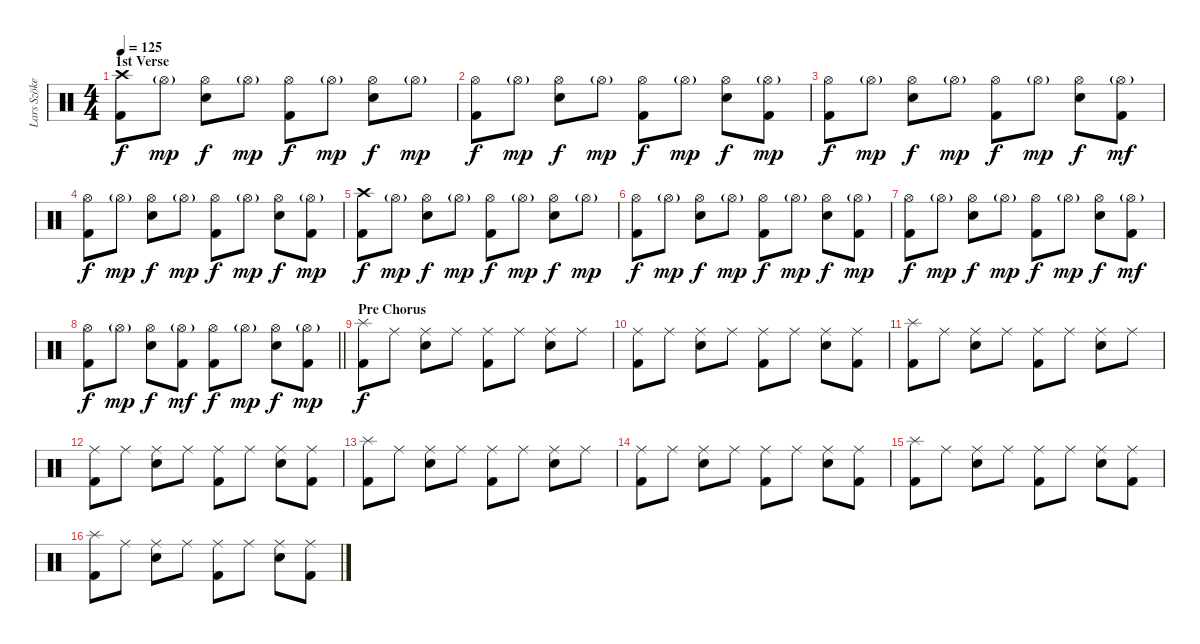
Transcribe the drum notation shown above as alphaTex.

\track ("Lars Szöke" "Lars Szöke") {instrument percussion}
\staff {score}
\articulation defaults
\ts (4 4)
\section ("" "1st Verse ")
\tempo 125
\clef neutral
\ks c
("Crash high (hit)" "Kick (hit) 2").8{dy f} "Hi-Hat (open)"{g}.8{dy mp} ("Hi-Hat (open)" "Snare (hit) 2").8{dy f} "Hi-Hat (open)"{g}.8{dy mp} ("Hi-Hat (open)" "Kick (hit) 2").8{dy f} "Hi-Hat (open)"{g}.8{dy mp} ("Hi-Hat (open)" "Snare (hit) 2").8{dy f} "Hi-Hat (open)"{g}.8{dy mp} |
("Hi-Hat (open)" "Kick (hit) 2").8{dy f} "Hi-Hat (open)"{g}.8{dy mp} ("Hi-Hat (open)" "Snare (hit) 2").8{dy f} "Hi-Hat (open)"{g}.8{dy mp} ("Hi-Hat (open)" "Kick (hit) 2").8{dy f} "Hi-Hat (open)"{g}.8{dy mp} ("Hi-Hat (open)" "Snare (hit) 2").8{dy f} ("Hi-Hat (open)"{g} "Kick (hit) 2").8{dy mp} |
("Hi-Hat (open)" "Kick (hit) 2").8{dy f} "Hi-Hat (open)"{g}.8{dy mp} ("Hi-Hat (open)" "Snare (hit) 2").8{dy f} "Hi-Hat (open)"{g}.8{dy mp} ("Hi-Hat (open)" "Kick (hit) 2").8{dy f} "Hi-Hat (open)"{g}.8{dy mp} ("Hi-Hat (open)" "Snare (hit) 2").8{dy f} ("Hi-Hat (open)"{g} "Kick (hit) 2").8{dy mf} |
("Hi-Hat (open)" "Kick (hit) 2").8{dy f} "Hi-Hat (open)"{g}.8{dy mp} ("Hi-Hat (open)" "Snare (hit) 2").8{dy f} "Hi-Hat (open)"{g}.8{dy mp} ("Hi-Hat (open)" "Kick (hit) 2").8{dy f} "Hi-Hat (open)"{g}.8{dy mp} ("Hi-Hat (open)" "Snare (hit) 2").8{dy f} ("Hi-Hat (open)"{g} "Kick (hit) 2").8{dy mp} |
("Crash high (hit)" "Kick (hit) 2").8{dy f} "Hi-Hat (open)"{g}.8{dy mp} ("Hi-Hat (open)" "Snare (hit) 2").8{dy f} "Hi-Hat (open)"{g}.8{dy mp} ("Hi-Hat (open)" "Kick (hit) 2").8{dy f} "Hi-Hat (open)"{g}.8{dy mp} ("Hi-Hat (open)" "Snare (hit) 2").8{dy f} "Hi-Hat (open)"{g}.8{dy mp} |
("Hi-Hat (open)" "Kick (hit) 2").8{dy f} "Hi-Hat (open)"{g}.8{dy mp} ("Hi-Hat (open)" "Snare (hit) 2").8{dy f} "Hi-Hat (open)"{g}.8{dy mp} ("Hi-Hat (open)" "Kick (hit) 2").8{dy f} "Hi-Hat (open)"{g}.8{dy mp} ("Hi-Hat (open)" "Snare (hit) 2").8{dy f} ("Hi-Hat (open)"{g} "Kick (hit) 2").8{dy mp} |
("Hi-Hat (open)" "Kick (hit) 2").8{dy f} "Hi-Hat (open)"{g}.8{dy mp} ("Hi-Hat (open)" "Snare (hit) 2").8{dy f} "Hi-Hat (open)"{g}.8{dy mp} ("Hi-Hat (open)" "Kick (hit) 2").8{dy f} "Hi-Hat (open)"{g}.8{dy mp} ("Hi-Hat (open)" "Snare (hit) 2").8{dy f} ("Hi-Hat (open)"{g} "Kick (hit) 2").8{dy mf} |
\barLineRight lightlight
("Hi-Hat (open)" "Kick (hit) 2").8{dy f} "Hi-Hat (open)"{g}.8{dy mp} ("Hi-Hat (open)" "Snare (hit) 2").8{dy f} ("Hi-Hat (open)"{g} "Kick (hit) 2").8{dy mf} ("Hi-Hat (open)" "Kick (hit) 2").8{dy f} "Hi-Hat (open)"{g}.8{dy mp} ("Hi-Hat (open)" "Snare (hit) 2").8{dy f} ("Hi-Hat (open)"{g} "Kick (hit) 2").8{dy mp} |
\section ("" "Pre Chorus ")
("Splash (hit)" "Kick (hit) 2").8{dy f} "Ride (middle)".8 ("Ride (middle)" "Snare (hit) 2").8 "Ride (middle)".8 ("Ride (middle)" "Kick (hit) 2").8 "Ride (middle)".8 ("Ride (middle)" "Snare (hit) 2").8 "Ride (middle)".8 |
("Ride (middle)" "Kick (hit) 2").8 "Ride (middle)".8 ("Ride (middle)" "Snare (hit) 2").8 "Ride (middle)".8 ("Ride (middle)" "Kick (hit) 2").8 "Ride (middle)".8 ("Ride (middle)" "Snare (hit) 2").8 ("Ride (middle)" "Kick (hit) 2").8 |
("Splash (hit)" "Kick (hit) 2").8 "Ride (middle)".8 ("Ride (middle)" "Snare (hit) 2").8 "Ride (middle)".8 ("Ride (middle)" "Kick (hit) 2").8 "Ride (middle)".8 ("Ride (middle)" "Snare (hit) 2").8 "Ride (middle)".8 |
("Ride (middle)" "Kick (hit) 2").8 "Ride (middle)".8 ("Ride (middle)" "Snare (hit) 2").8 "Ride (middle)".8 ("Ride (middle)" "Kick (hit) 2").8 "Ride (middle)".8 ("Ride (middle)" "Snare (hit) 2").8 ("Ride (middle)" "Kick (hit) 2").8 |
("Splash (hit)" "Kick (hit) 2").8 "Ride (middle)".8 ("Ride (middle)" "Snare (hit) 2").8 "Ride (middle)".8 ("Ride (middle)" "Kick (hit) 2").8 "Ride (middle)".8 ("Ride (middle)" "Snare (hit) 2").8 "Ride (middle)".8 |
("Ride (middle)" "Kick (hit) 2").8 "Ride (middle)".8 ("Ride (middle)" "Snare (hit) 2").8 "Ride (middle)".8 ("Ride (middle)" "Kick (hit) 2").8 "Ride (middle)".8 ("Ride (middle)" "Snare (hit) 2").8 ("Ride (middle)" "Kick (hit) 2").8 |
("Splash (hit)" "Kick (hit) 2").8 "Ride (middle)".8 ("Ride (middle)" "Snare (hit) 2").8 "Ride (middle)".8 ("Ride (middle)" "Kick (hit) 2").8 "Ride (middle)".8 ("Ride (middle)" "Snare (hit) 2").8 ("Ride (middle)" "Kick (hit) 2").8 |
("Splash (hit)" "Kick (hit) 2").8 "Ride (middle)".8 ("Ride (middle)" "Snare (hit) 2").8 "Ride (middle)".8 ("Ride (middle)" "Kick (hit) 2").8 "Ride (middle)".8 ("Ride (middle)" "Snare (hit) 2").8 ("Ride (middle)" "Kick (hit) 2").8
